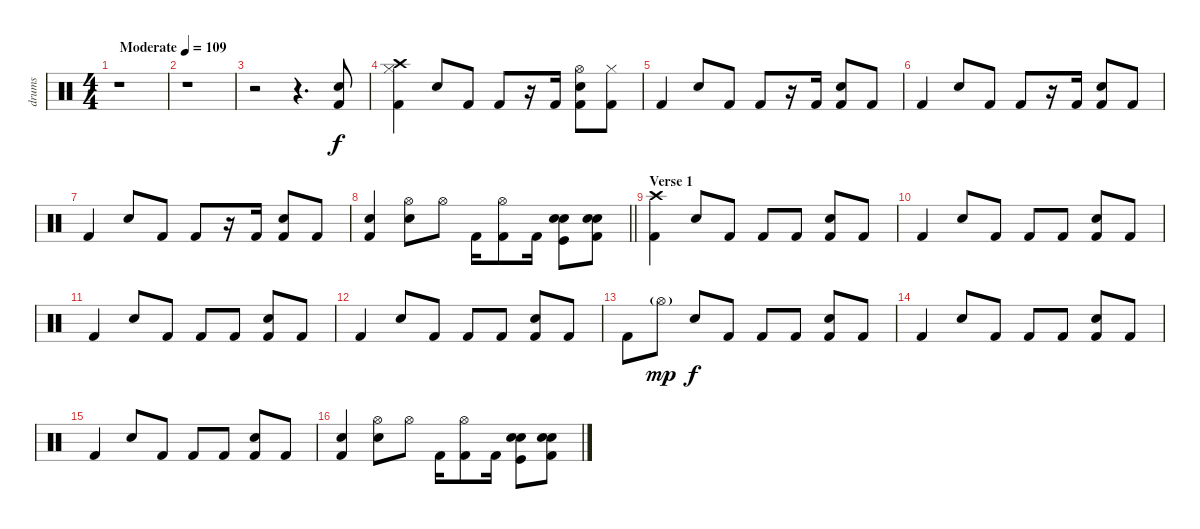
\track ("drums" "drums") {instrument percussion}
\staff {score}
\articulation defaults
\ts (4 4)
\tempo (109 "Moderate")
\clef neutral
\ks c
r.1{dy f} |
r.1 |
r.2 r.4{d} ("Snare (hit) 2" "Kick (hit) 2").8 |
("Hi-Hat (closed)" "Kick (hit) 2" "Crash high (hit)").4 "Snare (hit) 2".8 "Kick (hit) 2".8 "Kick (hit) 2".8 r.16 "Kick (hit) 2".16 ("Snare (hit) 2" "Kick (hit) 2" "Hi-Hat (open)").8 ("Hi-Hat (closed)" "Kick (hit) 2").8 |
"Kick (hit) 2".4 "Snare (hit) 2".8 "Kick (hit) 2".8 "Kick (hit) 2".8 r.16 "Kick (hit) 2".16 ("Snare (hit) 2" "Kick (hit) 2").8 "Kick (hit) 2".8 |
"Kick (hit) 2".4 "Snare (hit) 2".8 "Kick (hit) 2".8 "Kick (hit) 2".8 r.16 "Kick (hit) 2".16 ("Snare (hit) 2" "Kick (hit) 2").8 "Kick (hit) 2".8 |
"Kick (hit) 2".4 "Snare (hit) 2".8 "Kick (hit) 2".8 "Kick (hit) 2".8 r.16 "Kick (hit) 2".16 ("Snare (hit) 2" "Kick (hit) 2").8 "Kick (hit) 2".8 |
\barLineRight lightlight
("Snare (hit) 2" "Kick (hit) 2").4 ("Snare (hit) 2" "Hi-Hat (open)").8 "Hi-Hat (open)".8 "Kick (hit) 2".16 ("Hi-Hat (open)" "Kick (hit) 2").8 "Kick (hit) 2".16 ("Snare (hit) 2" "Kick (hit)" "Electric Snare (hit)").8 ("Snare (hit) 2" "Kick (hit) 2" "Electric Snare (hit)").8 |
\section ("" "Verse 1")
("Kick (hit) 2" "Crash high (hit)").4 "Snare (hit) 2".8 "Kick (hit) 2".8 "Kick (hit) 2".8 "Kick (hit) 2".8 ("Snare (hit) 2" "Kick (hit) 2").8 "Kick (hit) 2".8 |
"Kick (hit) 2".4 "Snare (hit) 2".8 "Kick (hit) 2".8 "Kick (hit) 2".8 "Kick (hit) 2".8 ("Snare (hit) 2" "Kick (hit) 2").8 "Kick (hit) 2".8 |
"Kick (hit) 2".4 "Snare (hit) 2".8 "Kick (hit) 2".8 "Kick (hit) 2".8 "Kick (hit) 2".8 ("Snare (hit) 2" "Kick (hit) 2").8 "Kick (hit) 2".8 |
"Kick (hit) 2".4 "Snare (hit) 2".8 "Kick (hit) 2".8 "Kick (hit) 2".8 "Kick (hit) 2".8 ("Snare (hit) 2" "Kick (hit) 2").8 "Kick (hit) 2".8 |
"Kick (hit) 2".8 "Hi-Hat (open)"{g}.8{dy mp} "Snare (hit) 2".8{dy f} "Kick (hit) 2".8 "Kick (hit) 2".8 "Kick (hit) 2".8 ("Snare (hit) 2" "Kick (hit) 2").8 "Kick (hit) 2".8 |
"Kick (hit) 2".4 "Snare (hit) 2".8 "Kick (hit) 2".8 "Kick (hit) 2".8 "Kick (hit) 2".8 ("Snare (hit) 2" "Kick (hit) 2").8 "Kick (hit) 2".8 |
"Kick (hit) 2".4 "Snare (hit) 2".8 "Kick (hit) 2".8 "Kick (hit) 2".8 "Kick (hit) 2".8 ("Snare (hit) 2" "Kick (hit) 2").8 "Kick (hit) 2".8 |
("Snare (hit) 2" "Kick (hit) 2").4 ("Snare (hit) 2" "Hi-Hat (open)").8 "Hi-Hat (open)".8 "Kick (hit) 2".16 ("Hi-Hat (open)" "Kick (hit) 2").8 "Kick (hit) 2".16 ("Snare (hit) 2" "Kick (hit)" "Electric Snare (hit)").8 ("Snare (hit) 2" "Kick (hit) 2" "Electric Snare (hit)").8
